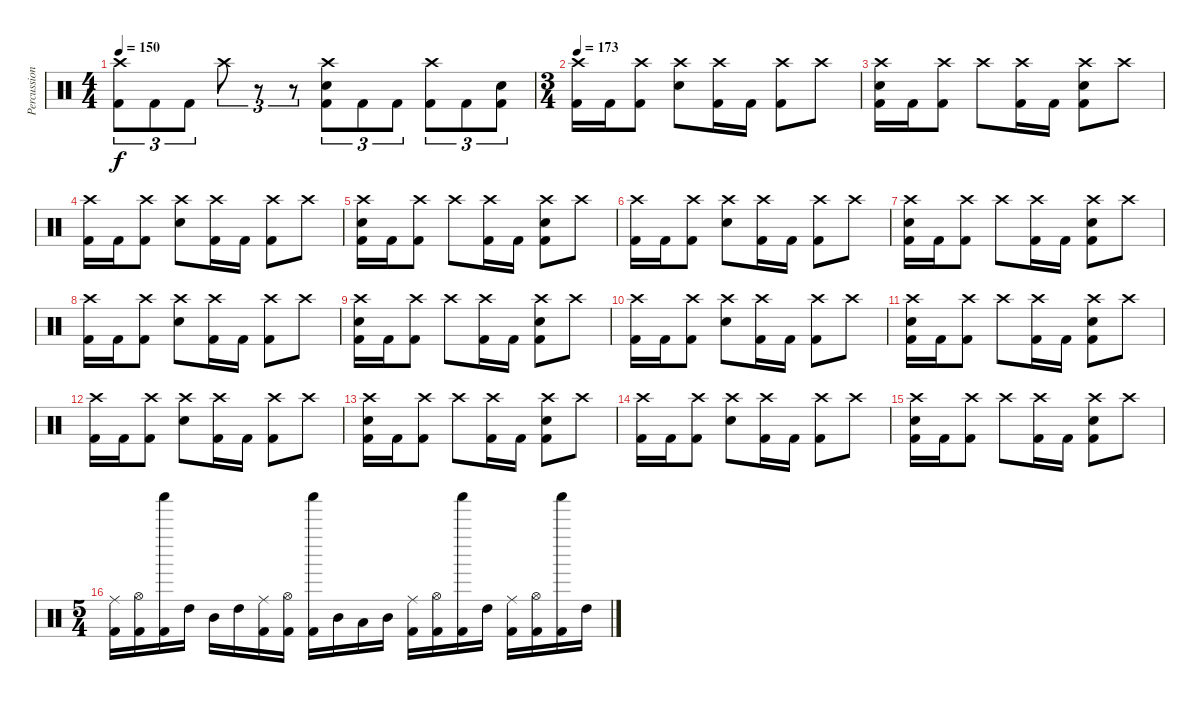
\track ("Percussion" "Percussion") {instrument percussion}
\staff {score}
\articulation defaults
\ts (4 4)
\tempo 150
\clef neutral
\ks c
("Crash high (hit)" "Kick (hit) 2").8{tu (3 2) dy f} "Kick (hit) 2".8{tu (3 2)} "Kick (hit) 2".8{tu (3 2)} "Crash high (hit)".8{tu (3 2)} r.8{tu (3 2)} r.8{tu (3 2)} ("Crash high (hit)" "Electric Snare (hit)" "Kick (hit) 2").8{tu (3 2)} "Kick (hit) 2".8{tu (3 2)} "Kick (hit) 2".8{tu (3 2)} ("Crash high (hit)" "Kick (hit) 2").8{tu (3 2)} "Kick (hit) 2".8{tu (3 2)} ("Electric Snare (hit)" "Kick (hit) 2").8{tu (3 2)} |
\ts (3 4)
\tempo 173
("Crash high (hit)" "Kick (hit) 2").16 "Kick (hit) 2".16 ("Crash high (hit)" "Kick (hit) 2").8 ("Crash high (hit)" "Electric Snare (hit)").8 ("Crash high (hit)" "Kick (hit) 2").16 "Kick (hit) 2".16 ("Crash high (hit)" "Kick (hit) 2").8 "Crash high (hit)".8 |
("Crash high (hit)" "Electric Snare (hit)" "Kick (hit) 2").16 "Kick (hit) 2".16 ("Crash high (hit)" "Kick (hit) 2").8 "Crash high (hit)".8 ("Crash high (hit)" "Kick (hit) 2").16 "Kick (hit) 2".16 ("Crash high (hit)" "Electric Snare (hit)" "Kick (hit) 2").8 "Crash high (hit)".8 |
("Crash high (hit)" "Kick (hit) 2").16 "Kick (hit) 2".16 ("Crash high (hit)" "Kick (hit) 2").8 ("Crash high (hit)" "Electric Snare (hit)").8 ("Crash high (hit)" "Kick (hit) 2").16 "Kick (hit) 2".16 ("Crash high (hit)" "Kick (hit) 2").8 "Crash high (hit)".8 |
("Crash high (hit)" "Electric Snare (hit)" "Kick (hit) 2").16 "Kick (hit) 2".16 ("Crash high (hit)" "Kick (hit) 2").8 "Crash high (hit)".8 ("Crash high (hit)" "Kick (hit) 2").16 "Kick (hit) 2".16 ("Crash high (hit)" "Electric Snare (hit)" "Kick (hit) 2").8 "Crash high (hit)".8 |
("Crash high (hit)" "Kick (hit) 2").16 "Kick (hit) 2".16 ("Crash high (hit)" "Kick (hit) 2").8 ("Crash high (hit)" "Electric Snare (hit)").8 ("Crash high (hit)" "Kick (hit) 2").16 "Kick (hit) 2".16 ("Crash high (hit)" "Kick (hit) 2").8 "Crash high (hit)".8 |
("Crash high (hit)" "Electric Snare (hit)" "Kick (hit) 2").16 "Kick (hit) 2".16 ("Crash high (hit)" "Kick (hit) 2").8 "Crash high (hit)".8 ("Crash high (hit)" "Kick (hit) 2").16 "Kick (hit) 2".16 ("Crash high (hit)" "Electric Snare (hit)" "Kick (hit) 2").8 "Crash high (hit)".8 |
("Crash high (hit)" "Kick (hit) 2").16 "Kick (hit) 2".16 ("Crash high (hit)" "Kick (hit) 2").8 ("Crash high (hit)" "Electric Snare (hit)").8 ("Crash high (hit)" "Kick (hit) 2").16 "Kick (hit) 2".16 ("Crash high (hit)" "Kick (hit) 2").8 "Crash high (hit)".8 |
("Crash high (hit)" "Electric Snare (hit)" "Kick (hit) 2").16 "Kick (hit) 2".16 ("Crash high (hit)" "Kick (hit) 2").8 "Crash high (hit)".8 ("Crash high (hit)" "Kick (hit) 2").16 "Kick (hit) 2".16 ("Crash high (hit)" "Electric Snare (hit)" "Kick (hit) 2").8 "Crash high (hit)".8 |
("Crash high (hit)" "Kick (hit) 2").16 "Kick (hit) 2".16 ("Crash high (hit)" "Kick (hit) 2").8 ("Crash high (hit)" "Electric Snare (hit)").8 ("Crash high (hit)" "Kick (hit) 2").16 "Kick (hit) 2".16 ("Crash high (hit)" "Kick (hit) 2").8 "Crash high (hit)".8 |
("Crash high (hit)" "Electric Snare (hit)" "Kick (hit) 2").16 "Kick (hit) 2".16 ("Crash high (hit)" "Kick (hit) 2").8 "Crash high (hit)".8 ("Crash high (hit)" "Kick (hit) 2").16 "Kick (hit) 2".16 ("Crash high (hit)" "Electric Snare (hit)" "Kick (hit) 2").8 "Crash high (hit)".8 |
("Crash high (hit)" "Kick (hit) 2").16 "Kick (hit) 2".16 ("Crash high (hit)" "Kick (hit) 2").8 ("Crash high (hit)" "Electric Snare (hit)").8 ("Crash high (hit)" "Kick (hit) 2").16 "Kick (hit) 2".16 ("Crash high (hit)" "Kick (hit) 2").8 "Crash high (hit)".8 |
("Crash high (hit)" "Electric Snare (hit)" "Kick (hit) 2").16 "Kick (hit) 2".16 ("Crash high (hit)" "Kick (hit) 2").8 "Crash high (hit)".8 ("Crash high (hit)" "Kick (hit) 2").16 "Kick (hit) 2".16 ("Crash high (hit)" "Electric Snare (hit)" "Kick (hit) 2").8 "Crash high (hit)".8 |
("Crash high (hit)" "Kick (hit) 2").16 "Kick (hit) 2".16 ("Crash high (hit)" "Kick (hit) 2").8 ("Crash high (hit)" "Electric Snare (hit)").8 ("Crash high (hit)" "Kick (hit) 2").16 "Kick (hit) 2".16 ("Crash high (hit)" "Kick (hit) 2").8 "Crash high (hit)".8 |
("Crash high (hit)" "Electric Snare (hit)" "Kick (hit) 2").16 "Kick (hit) 2".16 ("Crash high (hit)" "Kick (hit) 2").8 "Crash high (hit)".8 ("Crash high (hit)" "Kick (hit) 2").16 "Kick (hit) 2".16 ("Crash high (hit)" "Electric Snare (hit)" "Kick (hit) 2").8 "Crash high (hit)".8 |
\ts (5 4)
("Ride (middle)" "Kick (hit) 2").16 ("Hi-Hat (open)" "Kick (hit) 2").16 ("Shaker (hit)" "Kick (hit) 2").16 "High Tom (hit)".16 "Mid Tom (hit)".16 "High Tom (hit)".16 ("Ride (middle)" "Kick (hit) 2").16 ("Hi-Hat (open)" "Kick (hit) 2").16 ("Shaker (hit)" "Kick (hit) 2").16 "Mid Tom (hit)".16 "Low Tom (hit)".16 "Mid Tom (hit)".16 ("Ride (middle)" "Kick (hit) 2").16 ("Hi-Hat (open)" "Kick (hit) 2").16 ("Shaker (hit)" "Kick (hit) 2").16 "High Tom (hit)".16 ("Ride (middle)" "Kick (hit) 2").16 ("Hi-Hat (open)" "Kick (hit) 2").16 ("Shaker (hit)" "Kick (hit) 2").16 "High Tom (hit)".16
